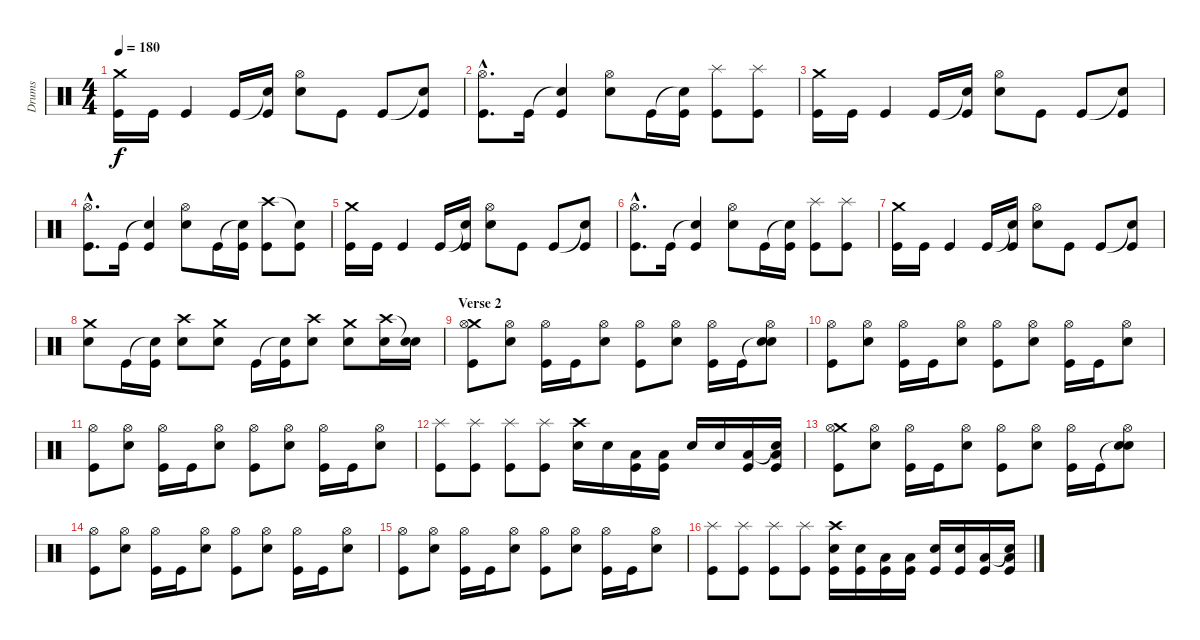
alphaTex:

\track ("Drums" "Drums") {instrument percussion}
\staff {score}
\articulation defaults
\ts (4 4)
\tempo 180
\clef neutral
\ks c
("Crash medium (hit)" "Kick (hit)").16{dy f} "Kick (hit)".16 "Kick (hit)".4 "Kick (hit)".16 ("Snare (hit)"{t} "Kick (hit)").16 ("Hi-Hat (open)" "Electric Snare (hit)").8 "Kick (hit)".8 "Kick (hit)".8 ("Snare (hit)"{t} "Kick (hit)").8 |
("Hi-Hat (open)"{hac} "Kick (hit)"{hac}).8{d} "Kick (hit)".16 ("Snare (hit)"{t} "Kick (hit)").4 ("Hi-Hat (open)" "Electric Snare (hit)").8 "Kick (hit)".16 ("Snare (hit)"{t} "Kick (hit)").16 ("Splash (hit)" "Kick (hit)").8 ("Splash (hit)" "Kick (hit)").8 |
("Crash medium (hit)" "Kick (hit)").16 "Kick (hit)".16 "Kick (hit)".4 "Kick (hit)".16 ("Snare (hit)"{t} "Kick (hit)").16 ("Hi-Hat (open)" "Electric Snare (hit)").8 "Kick (hit)".8 "Kick (hit)".8 ("Snare (hit)"{t} "Kick (hit)").8 |
("Hi-Hat (open)"{hac} "Kick (hit)"{hac}).8{d} "Kick (hit)".16 ("Snare (hit)"{t} "Kick (hit)").4 ("Hi-Hat (open)" "Electric Snare (hit)").8 "Kick (hit)".16 ("Snare (hit)"{t} "Kick (hit)").16 ("Crash high (hit)" "Kick (hit)").8 ("Snare (hit)"{t} "Kick (hit)").8 |
("Crash medium (hit)" "Kick (hit)").16 "Kick (hit)".16 "Kick (hit)".4 "Kick (hit)".16 ("Snare (hit)"{t} "Kick (hit)").16 ("Hi-Hat (open)" "Electric Snare (hit)").8 "Kick (hit)".8 "Kick (hit)".8 ("Snare (hit)"{t} "Kick (hit)").8 |
("Hi-Hat (open)"{hac} "Kick (hit)"{hac}).8{d} "Kick (hit)".16 ("Snare (hit)"{t} "Kick (hit)").4 ("Hi-Hat (open)" "Electric Snare (hit)").8 "Kick (hit)".16 ("Snare (hit)"{t} "Kick (hit)").16 ("Splash (hit)" "Kick (hit)").8 ("Splash (hit)" "Kick (hit)").8 |
("Crash medium (hit)" "Kick (hit)").16 "Kick (hit)".16 "Kick (hit)".4 "Kick (hit)".16 ("Snare (hit)"{t} "Kick (hit)").16 ("Hi-Hat (open)" "Electric Snare (hit)").8 "Kick (hit)".8 "Kick (hit)".8 ("Snare (hit)"{t} "Kick (hit)").8 |
("Crash medium (hit)" "Electric Snare (hit)").8 "Kick (hit)".16 ("Snare (hit)"{t} "Kick (hit)").16 ("Crash high (hit)" "Electric Snare (hit)").8 ("Crash medium (hit)" "Electric Snare (hit)").8 "Kick (hit)".16 ("Snare (hit)"{t} "Kick (hit)").16 ("Crash high (hit)" "Electric Snare (hit)").8 ("Crash medium (hit)" "Electric Snare (hit)").8 ("Crash high (hit)" "Electric Snare (hit)").16 ("Snare (hit)"{t} "Electric Snare (hit)").16 |
\section ("" "Verse 2")
("Crash medium (hit)" "Hi-Hat (open)" "Kick (hit)").8 ("Hi-Hat (open)" "Electric Snare (hit)").8 ("Hi-Hat (open)" "Kick (hit)").16 "Kick (hit)".16 ("Hi-Hat (open)" "Electric Snare (hit)").8 ("Hi-Hat (open)" "Kick (hit)").8 ("Hi-Hat (open)" "Electric Snare (hit)").8 ("Hi-Hat (open)" "Kick (hit)").16 "Kick (hit)".16 ("Snare (hit)"{t} "Hi-Hat (open)" "Electric Snare (hit)").8 |
("Hi-Hat (open)" "Kick (hit)").8 ("Hi-Hat (open)" "Electric Snare (hit)").8 ("Hi-Hat (open)" "Kick (hit)").16 "Kick (hit)".16 ("Hi-Hat (open)" "Electric Snare (hit)").8 ("Hi-Hat (open)" "Kick (hit)").8 ("Hi-Hat (open)" "Electric Snare (hit)").8 ("Hi-Hat (open)" "Kick (hit)").16 "Kick (hit)".16 ("Hi-Hat (open)" "Electric Snare (hit)").8 |
("Hi-Hat (open)" "Kick (hit)").8 ("Hi-Hat (open)" "Electric Snare (hit)").8 ("Hi-Hat (open)" "Kick (hit)").16 "Kick (hit)".16 ("Hi-Hat (open)" "Electric Snare (hit)").8 ("Hi-Hat (open)" "Kick (hit)").8 ("Hi-Hat (open)" "Electric Snare (hit)").8 ("Hi-Hat (open)" "Kick (hit)").16 "Kick (hit)".16 ("Hi-Hat (open)" "Electric Snare (hit)").8 |
("Splash (hit)" "Kick (hit)").8 ("Splash (hit)" "Kick (hit)").8 ("Splash (hit)" "Kick (hit)").8 ("Splash (hit)" "Kick (hit)").8 ("Crash high (hit)" "Electric Snare (hit)").16 "Electric Snare (hit)".16 ("Low Floor Tom (hit)" "Kick (hit)").16 ("Low Floor Tom (hit)" "Kick (hit)").16 "Electric Snare (hit)".16 "Electric Snare (hit)".16 ("Low Floor Tom (hit)" "Kick (hit)").16 ("Snare (hit)"{t} "Low Floor Tom (hit)" "Kick (hit)").16 |
("Crash medium (hit)" "Hi-Hat (open)" "Kick (hit)").8 ("Hi-Hat (open)" "Electric Snare (hit)").8 ("Hi-Hat (open)" "Kick (hit)").16 "Kick (hit)".16 ("Hi-Hat (open)" "Electric Snare (hit)").8 ("Hi-Hat (open)" "Kick (hit)").8 ("Hi-Hat (open)" "Electric Snare (hit)").8 ("Hi-Hat (open)" "Kick (hit)").16 "Kick (hit)".16 ("Snare (hit)"{t} "Hi-Hat (open)" "Electric Snare (hit)").8 |
("Hi-Hat (open)" "Kick (hit)").8 ("Hi-Hat (open)" "Electric Snare (hit)").8 ("Hi-Hat (open)" "Kick (hit)").16 "Kick (hit)".16 ("Hi-Hat (open)" "Electric Snare (hit)").8 ("Hi-Hat (open)" "Kick (hit)").8 ("Hi-Hat (open)" "Electric Snare (hit)").8 ("Hi-Hat (open)" "Kick (hit)").16 "Kick (hit)".16 ("Hi-Hat (open)" "Electric Snare (hit)").8 |
("Hi-Hat (open)" "Kick (hit)").8 ("Hi-Hat (open)" "Electric Snare (hit)").8 ("Hi-Hat (open)" "Kick (hit)").16 "Kick (hit)".16 ("Hi-Hat (open)" "Electric Snare (hit)").8 ("Hi-Hat (open)" "Kick (hit)").8 ("Hi-Hat (open)" "Electric Snare (hit)").8 ("Hi-Hat (open)" "Kick (hit)").16 "Kick (hit)".16 ("Hi-Hat (open)" "Electric Snare (hit)").8 |
("Splash (hit)" "Kick (hit)").8 ("Splash (hit)" "Kick (hit)").8 ("Splash (hit)" "Kick (hit)").8 ("Splash (hit)" "Kick (hit)").8 ("Crash high (hit)" "Electric Snare (hit)" "Kick (hit)").16 ("Electric Snare (hit)" "Kick (hit)").16 ("Low Floor Tom (hit)" "Kick (hit)").16 ("Low Floor Tom (hit)" "Kick (hit)").16 ("Electric Snare (hit)" "Kick (hit)").16 ("Electric Snare (hit)" "Kick (hit)").16 ("Low Floor Tom (hit)" "Kick (hit)").16 ("Snare (hit)"{t} "Low Floor Tom (hit)" "Kick (hit)").16
